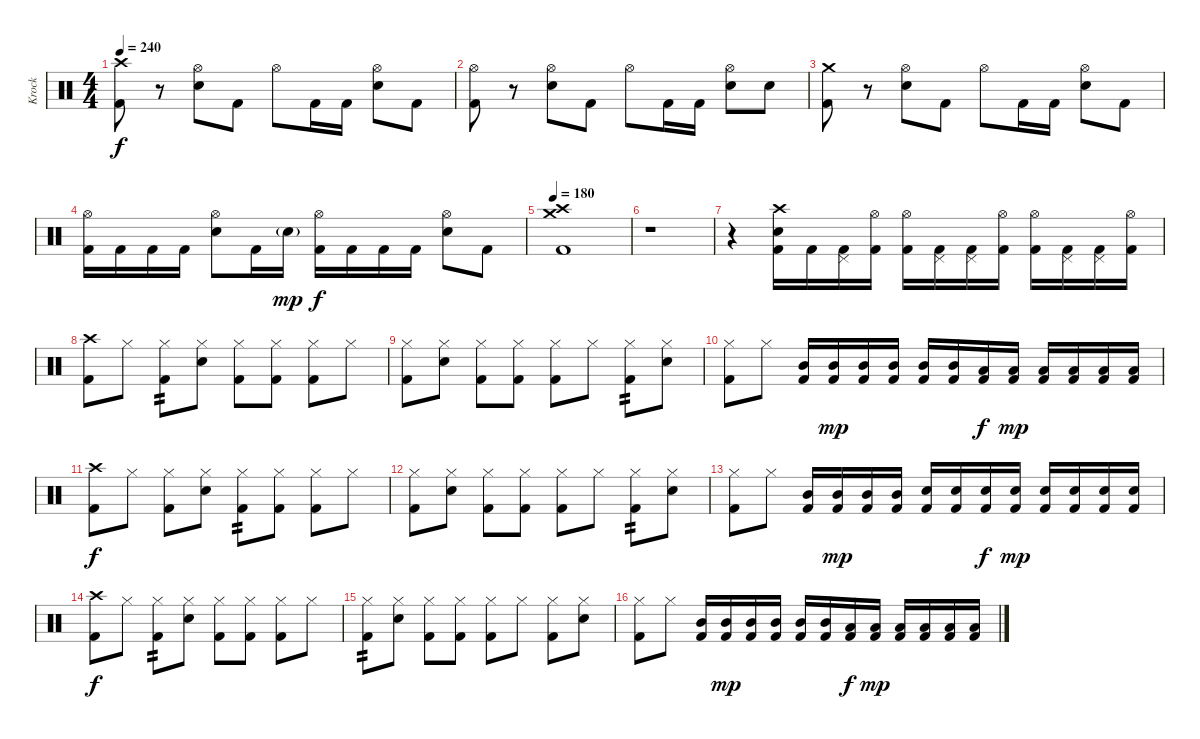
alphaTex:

\track ("Krock" "Krock") {instrument percussion}
\staff {score}
\articulation defaults
\ts (4 4)
\tempo 240
\clef neutral
\ks c
("Kick (hit) 2" "Crash high (hit)").8{dy f} r.8 ("Electric Snare (hit)" "Hi-Hat (open)").8 "Kick (hit) 2".8 "Hi-Hat (open)".8 "Kick (hit) 2".16 "Kick (hit) 2".16 ("Electric Snare (hit)" "Hi-Hat (open)").8 "Kick (hit) 2".8 |
("Kick (hit) 2" "Hi-Hat (open)").8 r.8 ("Electric Snare (hit)" "Hi-Hat (open)").8 "Kick (hit) 2".8 "Hi-Hat (open)".8 "Kick (hit) 2".16 "Kick (hit) 2".16 ("Electric Snare (hit)" "Hi-Hat (open)").8 "Electric Snare (hit)".8 |
("Kick (hit) 2" "Crash medium (hit)").8 r.8 ("Electric Snare (hit)" "Hi-Hat (open)").8 "Kick (hit) 2".8 "Hi-Hat (open)".8 "Kick (hit) 2".16 "Kick (hit) 2".16 ("Electric Snare (hit)" "Hi-Hat (open)").8 "Kick (hit) 2".8 |
("Kick (hit) 2" "Hi-Hat (open)").16 "Kick (hit) 2".16 "Kick (hit) 2".16 "Kick (hit) 2".16 ("Electric Snare (hit)" "Hi-Hat (open)").8 "Kick (hit) 2".16 "Electric Snare (hit)"{g}.16{dy mp} ("Kick (hit) 2" "Hi-Hat (open)").16{dy f} "Kick (hit) 2".16 "Kick (hit) 2".16 "Kick (hit) 2".16 ("Electric Snare (hit)" "Hi-Hat (open)").8 "Kick (hit) 2".8 |
\tempo 180
("Crash high (hit)" "Crash medium (hit)" "Kick (hit) 2").1 |
r.1 |
r.4 ("Kick (hit) 2" "Electric Snare (hit)" "Crash high (hit)").16 "Kick (hit) 2".16 ("Kick (hit) 2" "Pedal Hi-Hat (hit)").16 ("Kick (hit) 2" "Hi-Hat (open)").16 ("Kick (hit) 2" "Hi-Hat (open)").16 ("Kick (hit) 2" "Pedal Hi-Hat (hit)").16 ("Kick (hit) 2" "Pedal Hi-Hat (hit)").16 ("Kick (hit) 2" "Hi-Hat (open)").16 ("Kick (hit) 2" "Hi-Hat (open)").16 ("Kick (hit) 2" "Pedal Hi-Hat (hit)").16 ("Kick (hit) 2" "Pedal Hi-Hat (hit)").16 ("Kick (hit) 2" "Hi-Hat (open)").16 |
("Kick (hit) 2" "Crash high (hit)").8 "Hi-Hat (closed)".8 ("Kick (hit) 2" "Hi-Hat (closed)").8{tp 2} ("Electric Snare (hit)" "Hi-Hat (closed)").8 ("Kick (hit) 2" "Hi-Hat (closed)").8 ("Kick (hit) 2" "Hi-Hat (closed)").8 ("Kick (hit) 2" "Hi-Hat (closed)").8 "Hi-Hat (closed)".8 |
("Kick (hit) 2" "Hi-Hat (closed)").8 ("Electric Snare (hit)" "Hi-Hat (closed)").8 ("Kick (hit) 2" "Hi-Hat (closed)").8 ("Kick (hit) 2" "Hi-Hat (closed)").8 ("Kick (hit) 2" "Hi-Hat (closed)").8 "Hi-Hat (closed)".8 ("Kick (hit) 2" "Hi-Hat (closed)").8{tp 2} ("Electric Snare (hit)" "Hi-Hat (closed)").8 |
("Kick (hit) 2" "Hi-Hat (closed)").8 "Hi-Hat (closed)".8 ("Mid Tom (hit)" "Kick (hit) 2").16 ("Mid Tom (hit)" "Kick (hit) 2").16{dy mp} ("Mid Tom (hit)" "Kick (hit) 2").16 ("Mid Tom (hit)" "Kick (hit) 2").16 ("Mid Tom (hit)" "Kick (hit) 2").16 ("Mid Tom (hit)" "Kick (hit) 2").16 ("Low Tom (hit)" "Kick (hit) 2").16{dy f} ("Low Tom (hit)" "Kick (hit) 2").16{dy mp} ("Low Tom (hit)" "Kick (hit) 2").16 ("Low Tom (hit)" "Kick (hit) 2").16 ("Low Tom (hit)" "Kick (hit) 2").16 ("Low Tom (hit)" "Kick (hit) 2").16 |
("Kick (hit) 2" "Crash high (hit)").8{dy f} "Hi-Hat (closed)".8 ("Kick (hit) 2" "Hi-Hat (closed)").8 ("Electric Snare (hit)" "Hi-Hat (closed)").8 ("Kick (hit) 2" "Hi-Hat (closed)").8{tp 2} ("Kick (hit) 2" "Hi-Hat (closed)").8 ("Kick (hit) 2" "Hi-Hat (closed)").8 "Hi-Hat (closed)".8 |
("Kick (hit) 2" "Hi-Hat (closed)").8 ("Electric Snare (hit)" "Hi-Hat (closed)").8 ("Kick (hit) 2" "Hi-Hat (closed)").8 ("Kick (hit) 2" "Hi-Hat (closed)").8 ("Kick (hit) 2" "Hi-Hat (closed)").8 "Hi-Hat (closed)".8 ("Kick (hit) 2" "Hi-Hat (closed)").8{tp 2} ("Electric Snare (hit)" "Hi-Hat (closed)").8 |
("Kick (hit) 2" "Hi-Hat (closed)").8 "Hi-Hat (closed)".8 ("Mid Tom (hit)" "Kick (hit) 2").16 ("Mid Tom (hit)" "Kick (hit) 2").16{dy mp} ("Mid Tom (hit)" "Kick (hit) 2").16 ("Mid Tom (hit)" "Kick (hit) 2").16 ("Electric Snare (hit)" "Kick (hit) 2").16 ("Electric Snare (hit)" "Kick (hit) 2").16 ("Electric Snare (hit)" "Kick (hit) 2").16{dy f} ("Electric Snare (hit)" "Kick (hit) 2").16{dy mp} ("Electric Snare (hit)" "Kick (hit) 2").16 ("Electric Snare (hit)" "Kick (hit) 2").16 ("Electric Snare (hit)" "Kick (hit) 2").16 ("Electric Snare (hit)" "Kick (hit) 2").16 |
("Kick (hit) 2" "Crash high (hit)").8{dy f} "Hi-Hat (closed)".8 ("Kick (hit) 2" "Hi-Hat (closed)").8{tp 2} ("Electric Snare (hit)" "Hi-Hat (closed)").8 ("Kick (hit) 2" "Hi-Hat (closed)").8 ("Kick (hit) 2" "Hi-Hat (closed)").8 ("Kick (hit) 2" "Hi-Hat (closed)").8 "Hi-Hat (closed)".8 |
("Kick (hit) 2" "Hi-Hat (closed)").8{tp 2} ("Electric Snare (hit)" "Hi-Hat (closed)").8 ("Kick (hit) 2" "Hi-Hat (closed)").8 ("Kick (hit) 2" "Hi-Hat (closed)").8 ("Kick (hit) 2" "Hi-Hat (closed)").8 "Hi-Hat (closed)".8 ("Kick (hit) 2" "Hi-Hat (closed)").8 ("Electric Snare (hit)" "Hi-Hat (closed)").8 |
("Kick (hit) 2" "Hi-Hat (closed)").8 "Hi-Hat (closed)".8 ("Mid Tom (hit)" "Kick (hit) 2").16 ("Mid Tom (hit)" "Kick (hit) 2").16{dy mp} ("Mid Tom (hit)" "Kick (hit) 2").16 ("Mid Tom (hit)" "Kick (hit) 2").16 ("Mid Tom (hit)" "Kick (hit) 2").16 ("Mid Tom (hit)" "Kick (hit) 2").16 ("Low Tom (hit)" "Kick (hit) 2").16{dy f} ("Low Tom (hit)" "Kick (hit) 2").16{dy mp} ("Low Tom (hit)" "Kick (hit) 2").16 ("Low Tom (hit)" "Kick (hit) 2").16 ("Low Tom (hit)" "Kick (hit) 2").16 ("Low Tom (hit)" "Kick (hit) 2").16
